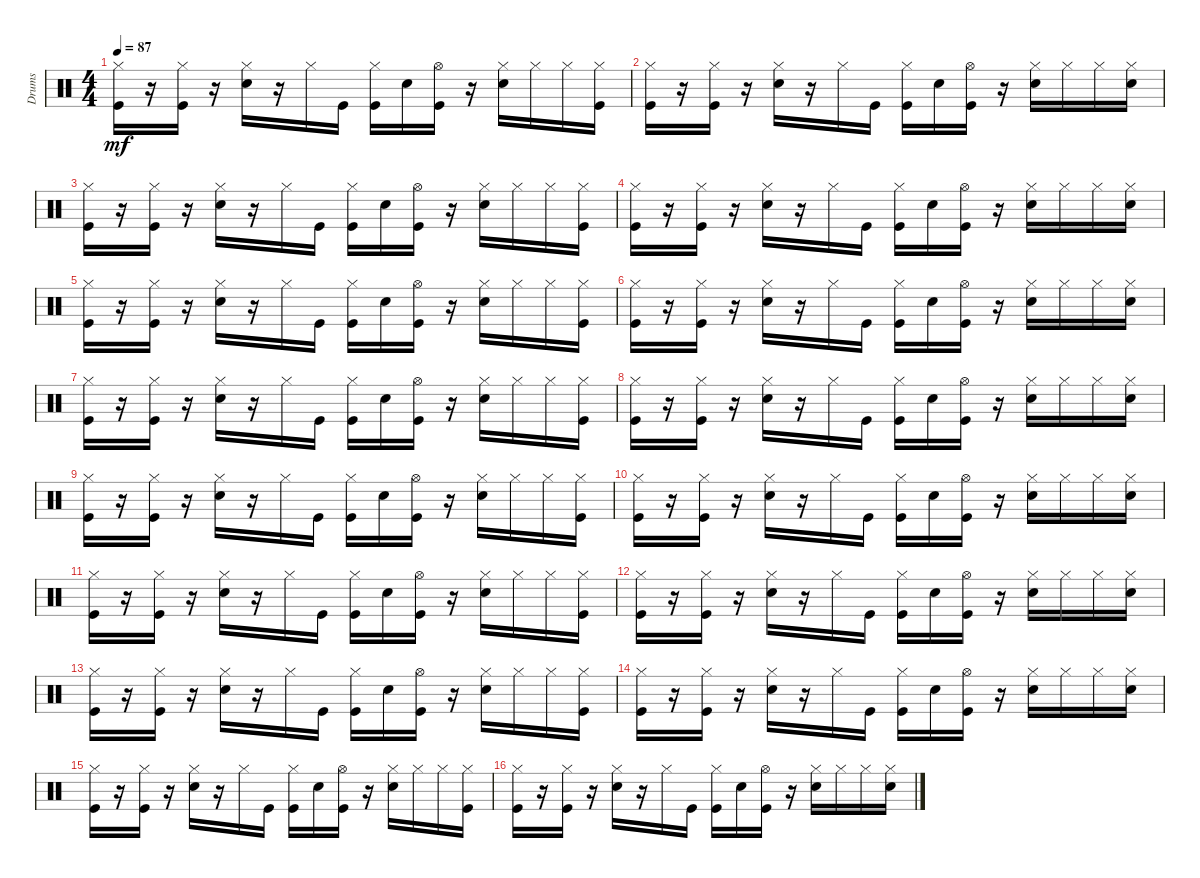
\track ("Drums" "Drums") {instrument percussion}
\staff {score}
\articulation defaults
\ts (4 4)
\tempo 87
\clef neutral
\ks aminor
("Kick (hit)" "Hi-Hat (closed)").16{dy mf} r.16 ("Kick (hit)" "Hi-Hat (closed)").16 r.16 ("Electric Snare (hit)" "Hi-Hat (closed)").16 r.16 "Hi-Hat (closed)".16 "Kick (hit)".16 ("Kick (hit)" "Hi-Hat (closed)").16 "Electric Snare (hit)".16 ("Kick (hit)" "Hi-Hat (open)").16 r.16 ("Electric Snare (hit)" "Hi-Hat (closed)").16 "Hi-Hat (closed)".16 "Hi-Hat (closed)".16 ("Kick (hit)" "Hi-Hat (closed)").16 |
("Kick (hit)" "Hi-Hat (closed)").16 r.16 ("Kick (hit)" "Hi-Hat (closed)").16 r.16 ("Electric Snare (hit)" "Hi-Hat (closed)").16 r.16 "Hi-Hat (closed)".16 "Kick (hit)".16 ("Kick (hit)" "Hi-Hat (closed)").16 "Electric Snare (hit)".16 ("Kick (hit)" "Hi-Hat (open)").16 r.16 ("Electric Snare (hit)" "Hi-Hat (closed)").16 "Hi-Hat (closed)".16 "Hi-Hat (closed)".16 ("Electric Snare (hit)" "Hi-Hat (closed)").16 |
("Kick (hit)" "Hi-Hat (closed)").16 r.16 ("Kick (hit)" "Hi-Hat (closed)").16 r.16 ("Electric Snare (hit)" "Hi-Hat (closed)").16 r.16 "Hi-Hat (closed)".16 "Kick (hit)".16 ("Kick (hit)" "Hi-Hat (closed)").16 "Electric Snare (hit)".16 ("Kick (hit)" "Hi-Hat (open)").16 r.16 ("Electric Snare (hit)" "Hi-Hat (closed)").16 "Hi-Hat (closed)".16 "Hi-Hat (closed)".16 ("Kick (hit)" "Hi-Hat (closed)").16 |
("Kick (hit)" "Hi-Hat (closed)").16 r.16 ("Kick (hit)" "Hi-Hat (closed)").16 r.16 ("Electric Snare (hit)" "Hi-Hat (closed)").16 r.16 "Hi-Hat (closed)".16 "Kick (hit)".16 ("Kick (hit)" "Hi-Hat (closed)").16 "Electric Snare (hit)".16 ("Kick (hit)" "Hi-Hat (open)").16 r.16 ("Electric Snare (hit)" "Hi-Hat (closed)").16 "Hi-Hat (closed)".16 "Hi-Hat (closed)".16 ("Electric Snare (hit)" "Hi-Hat (closed)").16 |
("Kick (hit)" "Hi-Hat (closed)").16 r.16 ("Kick (hit)" "Hi-Hat (closed)").16 r.16 ("Electric Snare (hit)" "Hi-Hat (closed)").16 r.16 "Hi-Hat (closed)".16 "Kick (hit)".16 ("Kick (hit)" "Hi-Hat (closed)").16 "Electric Snare (hit)".16 ("Kick (hit)" "Hi-Hat (open)").16 r.16 ("Electric Snare (hit)" "Hi-Hat (closed)").16 "Hi-Hat (closed)".16 "Hi-Hat (closed)".16 ("Kick (hit)" "Hi-Hat (closed)").16 |
("Kick (hit)" "Hi-Hat (closed)").16 r.16 ("Kick (hit)" "Hi-Hat (closed)").16 r.16 ("Electric Snare (hit)" "Hi-Hat (closed)").16 r.16 "Hi-Hat (closed)".16 "Kick (hit)".16 ("Kick (hit)" "Hi-Hat (closed)").16 "Electric Snare (hit)".16 ("Kick (hit)" "Hi-Hat (open)").16 r.16 ("Electric Snare (hit)" "Hi-Hat (closed)").16 "Hi-Hat (closed)".16 "Hi-Hat (closed)".16 ("Electric Snare (hit)" "Hi-Hat (closed)").16 |
("Kick (hit)" "Hi-Hat (closed)").16 r.16 ("Kick (hit)" "Hi-Hat (closed)").16 r.16 ("Electric Snare (hit)" "Hi-Hat (closed)").16 r.16 "Hi-Hat (closed)".16 "Kick (hit)".16 ("Kick (hit)" "Hi-Hat (closed)").16 "Electric Snare (hit)".16 ("Kick (hit)" "Hi-Hat (open)").16 r.16 ("Electric Snare (hit)" "Hi-Hat (closed)").16 "Hi-Hat (closed)".16 "Hi-Hat (closed)".16 ("Kick (hit)" "Hi-Hat (closed)").16 |
("Kick (hit)" "Hi-Hat (closed)").16 r.16 ("Kick (hit)" "Hi-Hat (closed)").16 r.16 ("Electric Snare (hit)" "Hi-Hat (closed)").16 r.16 "Hi-Hat (closed)".16 "Kick (hit)".16 ("Kick (hit)" "Hi-Hat (closed)").16 "Electric Snare (hit)".16 ("Kick (hit)" "Hi-Hat (open)").16 r.16 ("Electric Snare (hit)" "Hi-Hat (closed)").16 "Hi-Hat (closed)".16 "Hi-Hat (closed)".16 ("Electric Snare (hit)" "Hi-Hat (closed)").16 |
("Kick (hit)" "Hi-Hat (closed)").16 r.16 ("Kick (hit)" "Hi-Hat (closed)").16 r.16 ("Electric Snare (hit)" "Hi-Hat (closed)").16 r.16 "Hi-Hat (closed)".16 "Kick (hit)".16 ("Kick (hit)" "Hi-Hat (closed)").16 "Electric Snare (hit)".16 ("Kick (hit)" "Hi-Hat (open)").16 r.16 ("Electric Snare (hit)" "Hi-Hat (closed)").16 "Hi-Hat (closed)".16 "Hi-Hat (closed)".16 ("Kick (hit)" "Hi-Hat (closed)").16 |
("Kick (hit)" "Hi-Hat (closed)").16 r.16 ("Kick (hit)" "Hi-Hat (closed)").16 r.16 ("Electric Snare (hit)" "Hi-Hat (closed)").16 r.16 "Hi-Hat (closed)".16 "Kick (hit)".16 ("Kick (hit)" "Hi-Hat (closed)").16 "Electric Snare (hit)".16 ("Kick (hit)" "Hi-Hat (open)").16 r.16 ("Electric Snare (hit)" "Hi-Hat (closed)").16 "Hi-Hat (closed)".16 "Hi-Hat (closed)".16 ("Electric Snare (hit)" "Hi-Hat (closed)").16 |
("Kick (hit)" "Hi-Hat (closed)").16 r.16 ("Kick (hit)" "Hi-Hat (closed)").16 r.16 ("Electric Snare (hit)" "Hi-Hat (closed)").16 r.16 "Hi-Hat (closed)".16 "Kick (hit)".16 ("Kick (hit)" "Hi-Hat (closed)").16 "Electric Snare (hit)".16 ("Kick (hit)" "Hi-Hat (open)").16 r.16 ("Electric Snare (hit)" "Hi-Hat (closed)").16 "Hi-Hat (closed)".16 "Hi-Hat (closed)".16 ("Kick (hit)" "Hi-Hat (closed)").16 |
("Kick (hit)" "Hi-Hat (closed)").16 r.16 ("Kick (hit)" "Hi-Hat (closed)").16 r.16 ("Electric Snare (hit)" "Hi-Hat (closed)").16 r.16 "Hi-Hat (closed)".16 "Kick (hit)".16 ("Kick (hit)" "Hi-Hat (closed)").16 "Electric Snare (hit)".16 ("Kick (hit)" "Hi-Hat (open)").16 r.16 ("Electric Snare (hit)" "Hi-Hat (closed)").16 "Hi-Hat (closed)".16 "Hi-Hat (closed)".16 ("Electric Snare (hit)" "Hi-Hat (closed)").16 |
("Kick (hit)" "Hi-Hat (closed)").16 r.16 ("Kick (hit)" "Hi-Hat (closed)").16 r.16 ("Electric Snare (hit)" "Hi-Hat (closed)").16 r.16 "Hi-Hat (closed)".16 "Kick (hit)".16 ("Kick (hit)" "Hi-Hat (closed)").16 "Electric Snare (hit)".16 ("Kick (hit)" "Hi-Hat (open)").16 r.16 ("Electric Snare (hit)" "Hi-Hat (closed)").16 "Hi-Hat (closed)".16 "Hi-Hat (closed)".16 ("Kick (hit)" "Hi-Hat (closed)").16 |
("Kick (hit)" "Hi-Hat (closed)").16 r.16 ("Kick (hit)" "Hi-Hat (closed)").16 r.16 ("Electric Snare (hit)" "Hi-Hat (closed)").16 r.16 "Hi-Hat (closed)".16 "Kick (hit)".16 ("Kick (hit)" "Hi-Hat (closed)").16 "Electric Snare (hit)".16 ("Kick (hit)" "Hi-Hat (open)").16 r.16 ("Electric Snare (hit)" "Hi-Hat (closed)").16 "Hi-Hat (closed)".16 "Hi-Hat (closed)".16 ("Electric Snare (hit)" "Hi-Hat (closed)").16 |
("Kick (hit)" "Hi-Hat (closed)").16 r.16 ("Kick (hit)" "Hi-Hat (closed)").16 r.16 ("Electric Snare (hit)" "Hi-Hat (closed)").16 r.16 "Hi-Hat (closed)".16 "Kick (hit)".16 ("Kick (hit)" "Hi-Hat (closed)").16 "Electric Snare (hit)".16 ("Kick (hit)" "Hi-Hat (open)").16 r.16 ("Electric Snare (hit)" "Hi-Hat (closed)").16 "Hi-Hat (closed)".16 "Hi-Hat (closed)".16 ("Kick (hit)" "Hi-Hat (closed)").16 |
("Kick (hit)" "Hi-Hat (closed)").16 r.16 ("Kick (hit)" "Hi-Hat (closed)").16 r.16 ("Electric Snare (hit)" "Hi-Hat (closed)").16 r.16 "Hi-Hat (closed)".16 "Kick (hit)".16 ("Kick (hit)" "Hi-Hat (closed)").16 "Electric Snare (hit)".16 ("Kick (hit)" "Hi-Hat (open)").16 r.16 ("Electric Snare (hit)" "Hi-Hat (closed)").16 "Hi-Hat (closed)".16 "Hi-Hat (closed)".16 ("Electric Snare (hit)" "Hi-Hat (closed)").16
